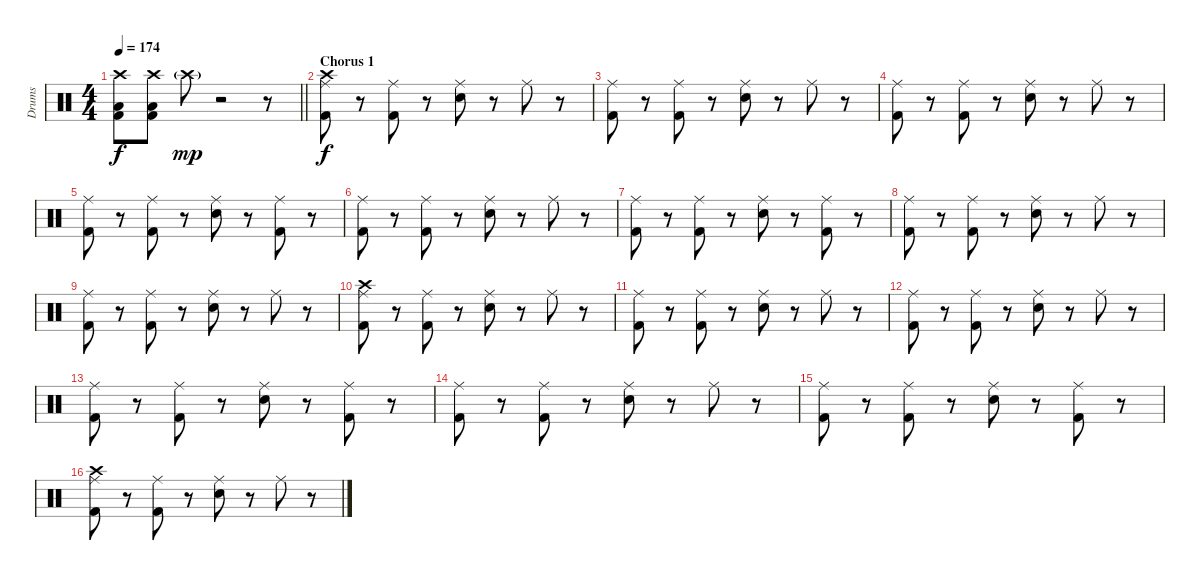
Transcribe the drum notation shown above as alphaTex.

\track ("Drums" "Drums") {instrument percussion}
\staff {score}
\articulation defaults
\ts (4 4)
\tempo 174
\clef neutral
\barLineRight lightlight
\ks c
("Crash high (hit)" "Low Tom (hit)" "Kick (hit) 2").8{dy f} ("Crash high (hit)" "Low Tom (hit)" "Kick (hit) 2").8 "Crash high (hit)"{g}.8{dy mp volume 0} r.2 r.8 |
\section ("" "Chorus 1")
("Ride (middle)" "Crash high (hit)" "Kick (hit) 2").8{dy f volume 16} r.8 ("Ride (middle)" "Kick (hit) 2").8 r.8 ("Ride (middle)" "Snare (hit) 2").8 r.8 "Ride (middle)".8 r.8 |
("Ride (middle)" "Kick (hit) 2").8 r.8 ("Ride (middle)" "Kick (hit) 2").8 r.8 ("Ride (middle)" "Snare (hit) 2").8 r.8 "Ride (middle)".8 r.8 |
("Ride (middle)" "Kick (hit) 2").8 r.8 ("Ride (middle)" "Kick (hit) 2").8 r.8 ("Ride (middle)" "Snare (hit) 2").8 r.8 "Ride (middle)".8 r.8 |
("Ride (middle)" "Kick (hit) 2").8 r.8 ("Ride (middle)" "Kick (hit) 2").8 r.8 ("Ride (middle)" "Snare (hit) 2").8 r.8 ("Ride (middle)" "Kick (hit) 2").8 r.8 |
("Ride (middle)" "Kick (hit) 2").8 r.8 ("Ride (middle)" "Kick (hit) 2").8 r.8 ("Ride (middle)" "Snare (hit) 2").8 r.8 "Ride (middle)".8 r.8 |
("Ride (middle)" "Kick (hit) 2").8 r.8 ("Ride (middle)" "Kick (hit) 2").8 r.8 ("Ride (middle)" "Snare (hit) 2").8 r.8 ("Ride (middle)" "Kick (hit) 2").8 r.8 |
("Ride (middle)" "Kick (hit) 2").8 r.8 ("Ride (middle)" "Kick (hit) 2").8 r.8 ("Ride (middle)" "Snare (hit) 2").8 r.8 "Ride (middle)".8 r.8 |
("Ride (middle)" "Kick (hit) 2").8 r.8 ("Ride (middle)" "Kick (hit) 2").8 r.8 ("Ride (middle)" "Snare (hit) 2").8 r.8 "Ride (middle)".8 r.8 |
("Ride (middle)" "Crash high (hit)" "Kick (hit) 2").8{volume 16} r.8 ("Ride (middle)" "Kick (hit) 2").8 r.8 ("Ride (middle)" "Snare (hit) 2").8 r.8 "Ride (middle)".8 r.8 |
("Ride (middle)" "Kick (hit) 2").8 r.8 ("Ride (middle)" "Kick (hit) 2").8 r.8 ("Ride (middle)" "Snare (hit) 2").8 r.8 "Ride (middle)".8 r.8 |
("Ride (middle)" "Kick (hit) 2").8 r.8 ("Ride (middle)" "Kick (hit) 2").8 r.8 ("Ride (middle)" "Snare (hit) 2").8 r.8 "Ride (middle)".8 r.8 |
("Ride (middle)" "Kick (hit) 2").8 r.8 ("Ride (middle)" "Kick (hit) 2").8 r.8 ("Ride (middle)" "Snare (hit) 2").8 r.8 ("Ride (middle)" "Kick (hit) 2").8 r.8 |
("Ride (middle)" "Kick (hit) 2").8 r.8 ("Ride (middle)" "Kick (hit) 2").8 r.8 ("Ride (middle)" "Snare (hit) 2").8 r.8 "Ride (middle)".8 r.8 |
("Ride (middle)" "Kick (hit) 2").8 r.8 ("Ride (middle)" "Kick (hit) 2").8 r.8 ("Ride (middle)" "Snare (hit) 2").8 r.8 ("Ride (middle)" "Kick (hit) 2").8 r.8 |
("Ride (middle)" "Crash high (hit)" "Kick (hit) 2").8 r.8 ("Ride (middle)" "Kick (hit) 2").8 r.8 ("Ride (middle)" "Snare (hit) 2").8 r.8 "Ride (middle)".8 r.8
